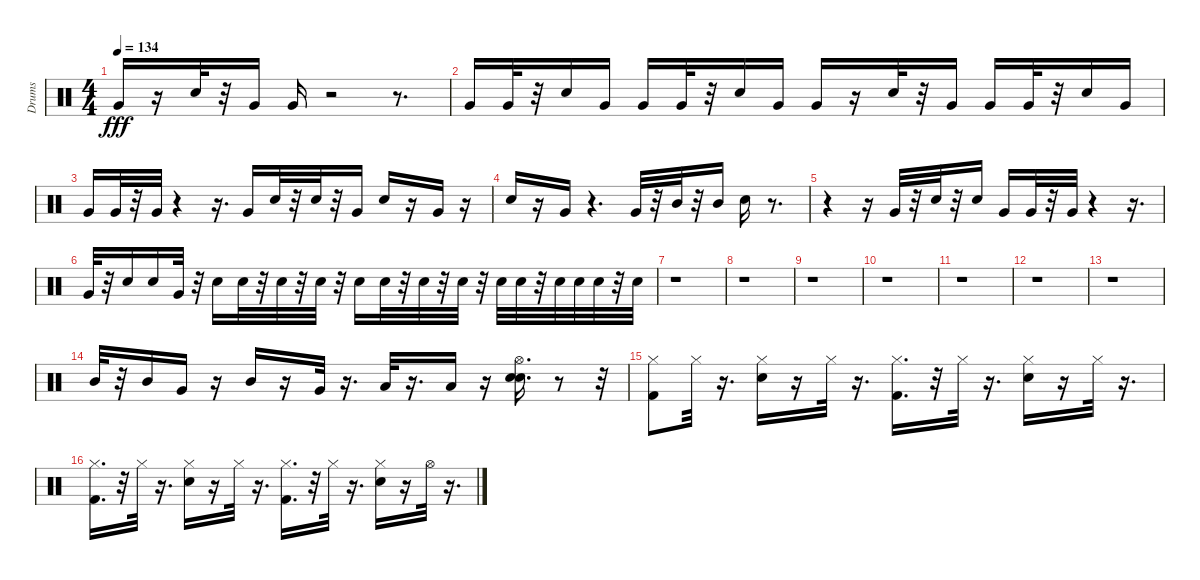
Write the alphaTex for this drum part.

\track ("Drums" "Drums") {instrument percussion}
\staff {score}
\articulation defaults
\ts (4 4)
\tempo 134
\clef neutral
\ks c "Very Low Tom (hit)".16{dy fff}
r.16 "Snare (hit) 2".32 r.32 "Very Low Tom (hit)".16 "Very Low Tom (hit)".16 r.2 r.8{d} |
"Very Low Tom (hit)".16 "Very Low Tom (hit)".32 r.32 "Snare (hit) 2".16 "Very Low Tom (hit)".16 "Very Low Tom (hit)".16 "Very Low Tom (hit)".32 r.32 "Snare (hit) 2".16 "Very Low Tom (hit)".16 "Very Low Tom (hit)".16 r.16 "Snare (hit) 2".32 r.32 "Very Low Tom (hit)".16 "Very Low Tom (hit)".16 "Very Low Tom (hit)".32 r.32 "Snare (hit) 2".16 "Very Low Tom (hit)".16 |
"Very Low Tom (hit)".16 "Very Low Tom (hit)".32 r.32 "Very Low Tom (hit)".32 r.4 r.16{d} "Very Low Tom (hit)".16 "Snare (hit) 2".32 r.32 "Snare (hit) 2".32 r.32 "Very Low Tom (hit)".16 "Snare (hit) 2".16 r.16 "Very Low Tom (hit)".16 r.16 |
"Snare (hit) 2".16 r.16 "Very Low Tom (hit)".16 r.4{d} "Very Low Tom (hit)".32 r.32 "Mid Tom (hit)".32 r.32 "Mid Tom (hit)".16 "Snare (hit) 2".16 r.8{d} |
r.4 r.16 "Very Low Tom (hit)".32 r.32 "Snare (hit) 2".32 r.32 "Snare (hit) 2".16 "Very Low Tom (hit)".16 "Very Low Tom (hit)".32 r.32 "Very Low Tom (hit)".32 r.4 r.16{d} |
"Very Low Tom (hit)".32 r.32 "Snare (hit) 2".16 "Snare (hit) 2".16 "Very Low Tom (hit)".32 r.32 "Snare (hit) 2".16 "Snare (hit) 2".32 r.32 "Snare (hit) 2".32 r.32 "Snare (hit) 2".32 r.32 "Snare (hit) 2".16 "Snare (hit) 2".32 r.32 "Snare (hit) 2".32 r.32 "Snare (hit) 2".32 r.32 "Snare (hit) 2".32 "Snare (hit) 2".32 r.32 "Snare (hit) 2".32 "Snare (hit) 2".32 "Snare (hit) 2".32 r.32 "Snare (hit) 2".32 |
r.1 |
r.1 |
r.1 |
r.1 |
r.1 |
r.1 |
r.1 |
"Mid Tom (hit)".32 r.32 "Mid Tom (hit)".16 "Very Low Tom (hit)".16 r.16 "Mid Tom (hit)".16 r.16 "Very Low Tom (hit)".32 r.16{d} "Low Floor Tom (hit)".32 r.16{d} "Low Floor Tom (hit)".16 r.16 ("Snare (hit) 2" "Snare (hit) 2" "Hi-Hat (open)").16{d} r.8 r.32 |
("Kick (hit) 2" "Hi-Hat (closed)").8 "Hi-Hat (closed)".32 r.16{d} ("Snare (hit) 2" "Hi-Hat (closed)").16 r.16 "Hi-Hat (closed)".32 r.16{d} ("Kick (hit) 2" "Hi-Hat (closed)").16{d} r.32 "Hi-Hat (closed)".32 r.16{d} ("Snare (hit) 2" "Hi-Hat (closed)").16 r.16 "Hi-Hat (closed)".32 r.16{d} |
("Kick (hit) 2" "Hi-Hat (closed)").16{d} r.32 "Hi-Hat (closed)".32 r.16{d} ("Snare (hit) 2" "Hi-Hat (closed)").16 r.16 "Hi-Hat (closed)".32 r.16{d} ("Kick (hit) 2" "Hi-Hat (closed)").16{d} r.32 "Hi-Hat (closed)".32 r.16{d} ("Snare (hit) 2" "Hi-Hat (closed)").16 r.16 "Hi-Hat (open)".32 r.16{d}
